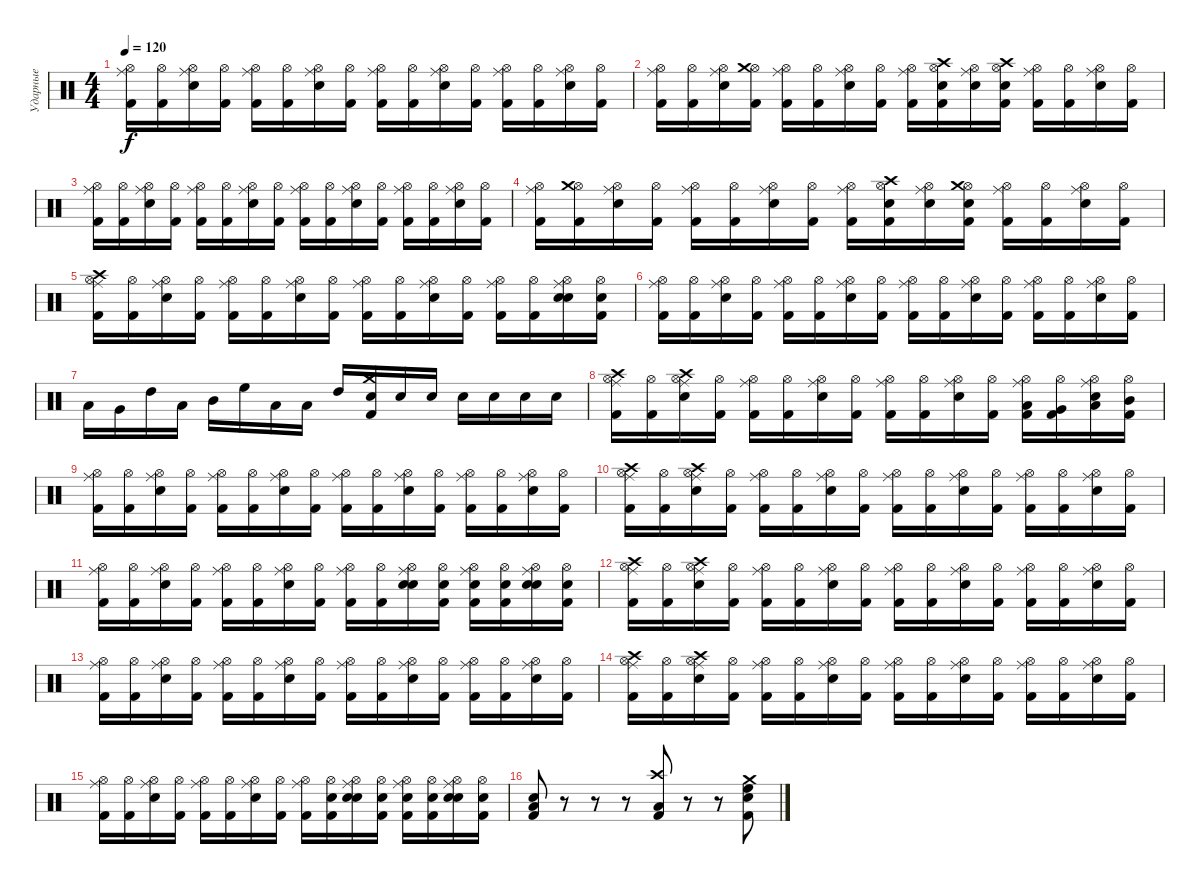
\track ("Ударные" "Ударные") {instrument percussion}
\staff {score}
\articulation defaults
\ts (4 4)
\tempo 120
\clef neutral
\ks c
("Hi-Hat (open)" "Ride (middle)" "Kick (hit) 2").16{dy f} ("Hi-Hat (open)" "Kick (hit) 2").16 ("Hi-Hat (open)" "Ride (middle)" "Snare (hit) 2").16 ("Hi-Hat (open)" "Kick (hit) 2").16 ("Hi-Hat (open)" "Ride (middle)" "Kick (hit) 2").16 ("Hi-Hat (open)" "Kick (hit) 2").16 ("Hi-Hat (open)" "Ride (middle)" "Snare (hit) 2").16 ("Hi-Hat (open)" "Kick (hit) 2").16 ("Hi-Hat (open)" "Ride (middle)" "Kick (hit) 2").16 ("Hi-Hat (open)" "Kick (hit) 2").16 ("Hi-Hat (open)" "Ride (middle)" "Snare (hit) 2").16 ("Hi-Hat (open)" "Kick (hit) 2").16 ("Hi-Hat (open)" "Ride (middle)" "Kick (hit) 2").16 ("Hi-Hat (open)" "Kick (hit) 2").16 ("Hi-Hat (open)" "Ride (middle)" "Snare (hit) 2").16 ("Hi-Hat (open)" "Kick (hit) 2").16 |
("Hi-Hat (open)" "Ride (middle)" "Kick (hit) 2").16 ("Hi-Hat (open)" "Kick (hit) 2").16 ("Hi-Hat (open)" "Ride (middle)" "Snare (hit) 2").16 ("Hi-Hat (open)" "Kick (hit) 2" "Crash medium (hit)").16 ("Hi-Hat (open)" "Ride (middle)" "Kick (hit) 2").16 ("Hi-Hat (open)" "Kick (hit) 2").16 ("Hi-Hat (open)" "Ride (middle)" "Snare (hit) 2").16 ("Hi-Hat (open)" "Kick (hit) 2").16 ("Hi-Hat (open)" "Ride (middle)" "Kick (hit) 2").16 ("Hi-Hat (open)" "Kick (hit) 2" "Crash high (hit)" "Snare (hit) 2").16 ("Hi-Hat (open)" "Ride (middle)" "Snare (hit) 2").16 ("Hi-Hat (open)" "Kick (hit) 2" "Crash high (hit)" "Snare (hit) 2").16 ("Hi-Hat (open)" "Ride (middle)" "Kick (hit) 2").16 ("Hi-Hat (open)" "Kick (hit) 2").16 ("Hi-Hat (open)" "Ride (middle)" "Snare (hit) 2").16 ("Hi-Hat (open)" "Kick (hit) 2").16 |
("Hi-Hat (open)" "Ride (middle)" "Kick (hit) 2").16 ("Hi-Hat (open)" "Kick (hit) 2").16 ("Hi-Hat (open)" "Ride (middle)" "Snare (hit) 2").16 ("Hi-Hat (open)" "Kick (hit) 2").16 ("Hi-Hat (open)" "Ride (middle)" "Kick (hit) 2").16 ("Hi-Hat (open)" "Kick (hit) 2").16 ("Hi-Hat (open)" "Ride (middle)" "Snare (hit) 2").16 ("Hi-Hat (open)" "Kick (hit) 2").16 ("Hi-Hat (open)" "Ride (middle)" "Kick (hit) 2").16 ("Hi-Hat (open)" "Kick (hit) 2").16 ("Hi-Hat (open)" "Ride (middle)" "Snare (hit) 2").16 ("Hi-Hat (open)" "Kick (hit) 2").16 ("Hi-Hat (open)" "Ride (middle)" "Kick (hit) 2").16 ("Hi-Hat (open)" "Kick (hit) 2").16 ("Hi-Hat (open)" "Ride (middle)" "Snare (hit) 2").16 ("Hi-Hat (open)" "Kick (hit) 2").16 |
("Hi-Hat (open)" "Ride (middle)" "Kick (hit) 2").16 ("Hi-Hat (open)" "Kick (hit) 2" "Crash medium (hit)").16 ("Hi-Hat (open)" "Ride (middle)" "Snare (hit) 2").16 ("Hi-Hat (open)" "Kick (hit) 2").16 ("Hi-Hat (open)" "Ride (middle)" "Kick (hit) 2").16 ("Hi-Hat (open)" "Kick (hit) 2").16 ("Hi-Hat (open)" "Ride (middle)" "Snare (hit) 2").16 ("Hi-Hat (open)" "Kick (hit) 2").16 ("Hi-Hat (open)" "Ride (middle)" "Kick (hit) 2").16 ("Hi-Hat (open)" "Kick (hit) 2" "Electric Snare (hit)" "Crash high (hit)").16 ("Hi-Hat (open)" "Ride (middle)" "Snare (hit) 2").16 ("Hi-Hat (open)" "Kick (hit) 2" "Crash medium (hit)" "Electric Snare (hit)").16 ("Hi-Hat (open)" "Ride (middle)" "Kick (hit) 2").16 ("Hi-Hat (open)" "Kick (hit) 2").16 ("Hi-Hat (open)" "Ride (middle)" "Snare (hit) 2").16 ("Hi-Hat (open)" "Kick (hit) 2").16 |
("Hi-Hat (open)" "Ride (middle)" "Kick (hit) 2" "Crash high (hit)").16 ("Hi-Hat (open)" "Kick (hit) 2").16 ("Hi-Hat (open)" "Ride (middle)" "Snare (hit) 2").16 ("Hi-Hat (open)" "Kick (hit) 2").16 ("Hi-Hat (open)" "Ride (middle)" "Kick (hit) 2").16 ("Hi-Hat (open)" "Kick (hit) 2").16 ("Hi-Hat (open)" "Ride (middle)" "Snare (hit) 2").16 ("Hi-Hat (open)" "Kick (hit) 2").16 ("Hi-Hat (open)" "Ride (middle)" "Kick (hit) 2").16 ("Hi-Hat (open)" "Kick (hit) 2").16 ("Hi-Hat (open)" "Ride (middle)" "Snare (hit) 2").16 ("Hi-Hat (open)" "Kick (hit) 2").16 ("Hi-Hat (open)" "Ride (middle)" "Kick (hit) 2").16 ("Hi-Hat (open)" "Kick (hit) 2").16 ("Hi-Hat (open)" "Ride (middle)" "Snare (hit) 2" "Electric Snare (hit)").16 ("Hi-Hat (open)" "Kick (hit) 2" "Electric Snare (hit)").16 |
("Hi-Hat (open)" "Ride (middle)" "Kick (hit) 2").16 ("Hi-Hat (open)" "Kick (hit) 2").16 ("Hi-Hat (open)" "Ride (middle)" "Snare (hit) 2").16 ("Hi-Hat (open)" "Kick (hit) 2").16 ("Hi-Hat (open)" "Ride (middle)" "Kick (hit) 2").16 ("Hi-Hat (open)" "Kick (hit) 2").16 ("Hi-Hat (open)" "Ride (middle)" "Snare (hit) 2").16 ("Hi-Hat (open)" "Kick (hit) 2").16 ("Hi-Hat (open)" "Ride (middle)" "Kick (hit) 2").16 ("Hi-Hat (open)" "Kick (hit) 2").16 ("Hi-Hat (open)" "Ride (middle)" "Snare (hit) 2").16 ("Hi-Hat (open)" "Kick (hit) 2").16 ("Hi-Hat (open)" "Ride (middle)" "Kick (hit) 2").16 ("Hi-Hat (open)" "Kick (hit) 2").16 ("Hi-Hat (open)" "Ride (middle)" "Snare (hit) 2").16 ("Hi-Hat (open)" "Kick (hit) 2").16 |
"Low Floor Tom (hit)".16 "Very Low Tom (hit)".16 "High Tom (hit)".16 "Low Tom (hit)".16 "Mid Tom (hit)".16 "High Floor Tom (hit)".16 "Low Floor Tom (hit)".16 "Low Tom (hit)".16 "High Tom (hit)".16 ("Electric Snare (hit)" "Kick (hit) 2" "Crash medium (hit)").16 "Electric Snare (hit)".16 "Electric Snare (hit)".16 "Electric Snare (hit)".16 "Electric Snare (hit)".16 "Electric Snare (hit)".16 "Electric Snare (hit)".16 |
("Hi-Hat (open)" "Ride (middle)" "Kick (hit) 2" "Crash high (hit)").16 ("Hi-Hat (open)" "Kick (hit) 2").16 ("Hi-Hat (open)" "Ride (middle)" "Snare (hit) 2" "Crash high (hit)").16 ("Hi-Hat (open)" "Kick (hit) 2").16 ("Hi-Hat (open)" "Ride (middle)" "Kick (hit) 2").16 ("Hi-Hat (open)" "Kick (hit) 2").16 ("Hi-Hat (open)" "Ride (middle)" "Snare (hit) 2").16 ("Hi-Hat (open)" "Kick (hit) 2").16 ("Hi-Hat (open)" "Ride (middle)" "Kick (hit) 2").16 ("Hi-Hat (open)" "Kick (hit) 2").16 ("Hi-Hat (open)" "Ride (middle)" "Snare (hit) 2").16 ("Hi-Hat (open)" "Kick (hit) 2").16 ("Hi-Hat (open)" "Ride (middle)" "Kick (hit) 2" "Low Floor Tom (hit)").16 ("Hi-Hat (open)" "Kick (hit) 2" "Very Low Tom (hit)").16 ("Hi-Hat (open)" "Ride (middle)" "Snare (hit) 2" "Low Tom (hit)").16 ("Hi-Hat (open)" "Kick (hit) 2" "Mid Tom (hit)").16 |
("Hi-Hat (open)" "Ride (middle)" "Kick (hit) 2").16 ("Hi-Hat (open)" "Kick (hit) 2").16 ("Hi-Hat (open)" "Ride (middle)" "Snare (hit) 2").16 ("Hi-Hat (open)" "Kick (hit) 2").16 ("Hi-Hat (open)" "Ride (middle)" "Kick (hit) 2").16 ("Hi-Hat (open)" "Kick (hit) 2").16 ("Hi-Hat (open)" "Ride (middle)" "Snare (hit) 2").16 ("Hi-Hat (open)" "Kick (hit) 2").16 ("Hi-Hat (open)" "Ride (middle)" "Kick (hit) 2").16 ("Hi-Hat (open)" "Kick (hit) 2").16 ("Hi-Hat (open)" "Ride (middle)" "Snare (hit) 2").16 ("Hi-Hat (open)" "Kick (hit) 2").16 ("Hi-Hat (open)" "Ride (middle)" "Kick (hit) 2").16 ("Hi-Hat (open)" "Kick (hit) 2").16 ("Hi-Hat (open)" "Ride (middle)" "Snare (hit) 2").16 ("Hi-Hat (open)" "Kick (hit) 2").16 |
("Hi-Hat (open)" "Ride (middle)" "Kick (hit) 2" "Crash high (hit)").16 ("Hi-Hat (open)" "Kick (hit) 2").16 ("Hi-Hat (open)" "Ride (middle)" "Snare (hit) 2" "Crash high (hit)").16 ("Hi-Hat (open)" "Kick (hit) 2").16 ("Hi-Hat (open)" "Ride (middle)" "Kick (hit) 2").16 ("Hi-Hat (open)" "Kick (hit) 2").16 ("Hi-Hat (open)" "Ride (middle)" "Snare (hit) 2").16 ("Hi-Hat (open)" "Kick (hit) 2").16 ("Hi-Hat (open)" "Ride (middle)" "Kick (hit) 2").16 ("Hi-Hat (open)" "Kick (hit) 2").16 ("Hi-Hat (open)" "Ride (middle)" "Snare (hit) 2").16 ("Hi-Hat (open)" "Kick (hit) 2").16 ("Hi-Hat (open)" "Ride (middle)" "Kick (hit) 2").16 ("Hi-Hat (open)" "Kick (hit) 2").16 ("Hi-Hat (open)" "Ride (middle)" "Snare (hit) 2").16 ("Hi-Hat (open)" "Kick (hit) 2").16 |
("Hi-Hat (open)" "Ride (middle)" "Kick (hit) 2").16 ("Hi-Hat (open)" "Kick (hit) 2").16 ("Hi-Hat (open)" "Ride (middle)" "Snare (hit) 2").16 ("Hi-Hat (open)" "Kick (hit) 2").16 ("Hi-Hat (open)" "Ride (middle)" "Kick (hit) 2").16 ("Hi-Hat (open)" "Kick (hit) 2").16 ("Hi-Hat (open)" "Ride (middle)" "Snare (hit) 2").16 ("Hi-Hat (open)" "Kick (hit) 2").16 ("Hi-Hat (open)" "Ride (middle)" "Kick (hit) 2").16 ("Hi-Hat (open)" "Kick (hit) 2").16 ("Hi-Hat (open)" "Ride (middle)" "Snare (hit) 2" "Electric Snare (hit)").16 ("Hi-Hat (open)" "Kick (hit) 2" "Electric Snare (hit)").16 ("Hi-Hat (open)" "Ride (middle)" "Kick (hit) 2" "Electric Snare (hit)").16 ("Hi-Hat (open)" "Kick (hit) 2" "Electric Snare (hit)").16 ("Hi-Hat (open)" "Ride (middle)" "Snare (hit) 2" "Electric Snare (hit)").16 ("Hi-Hat (open)" "Kick (hit) 2" "Electric Snare (hit)").16 |
("Hi-Hat (open)" "Ride (middle)" "Kick (hit) 2" "Crash high (hit)").16 ("Hi-Hat (open)" "Kick (hit) 2").16 ("Hi-Hat (open)" "Ride (middle)" "Snare (hit) 2" "Crash high (hit)").16 ("Hi-Hat (open)" "Kick (hit) 2").16 ("Hi-Hat (open)" "Ride (middle)" "Kick (hit) 2").16 ("Hi-Hat (open)" "Kick (hit) 2").16 ("Hi-Hat (open)" "Ride (middle)" "Snare (hit) 2").16 ("Hi-Hat (open)" "Kick (hit) 2").16 ("Hi-Hat (open)" "Ride (middle)" "Kick (hit) 2").16 ("Hi-Hat (open)" "Kick (hit) 2").16 ("Hi-Hat (open)" "Ride (middle)" "Snare (hit) 2").16 ("Hi-Hat (open)" "Kick (hit) 2").16 ("Hi-Hat (open)" "Ride (middle)" "Kick (hit) 2").16 ("Hi-Hat (open)" "Kick (hit) 2").16 ("Hi-Hat (open)" "Ride (middle)" "Snare (hit) 2").16 ("Hi-Hat (open)" "Kick (hit) 2").16 |
("Hi-Hat (open)" "Ride (middle)" "Kick (hit) 2").16 ("Hi-Hat (open)" "Kick (hit) 2").16 ("Hi-Hat (open)" "Ride (middle)" "Snare (hit) 2").16 ("Hi-Hat (open)" "Kick (hit) 2").16 ("Hi-Hat (open)" "Ride (middle)" "Kick (hit) 2").16 ("Hi-Hat (open)" "Kick (hit) 2").16 ("Hi-Hat (open)" "Ride (middle)" "Snare (hit) 2").16 ("Hi-Hat (open)" "Kick (hit) 2").16 ("Hi-Hat (open)" "Ride (middle)" "Kick (hit) 2").16 ("Hi-Hat (open)" "Kick (hit) 2").16 ("Hi-Hat (open)" "Ride (middle)" "Snare (hit) 2").16 ("Hi-Hat (open)" "Kick (hit) 2").16 ("Hi-Hat (open)" "Ride (middle)" "Kick (hit) 2").16 ("Hi-Hat (open)" "Kick (hit) 2").16 ("Hi-Hat (open)" "Ride (middle)" "Snare (hit) 2").16 ("Hi-Hat (open)" "Kick (hit) 2").16 |
("Hi-Hat (open)" "Ride (middle)" "Kick (hit) 2" "Crash high (hit)").16 ("Hi-Hat (open)" "Kick (hit) 2").16 ("Hi-Hat (open)" "Ride (middle)" "Snare (hit) 2" "Crash high (hit)").16 ("Hi-Hat (open)" "Kick (hit) 2").16 ("Hi-Hat (open)" "Ride (middle)" "Kick (hit) 2").16 ("Hi-Hat (open)" "Kick (hit) 2").16 ("Hi-Hat (open)" "Ride (middle)" "Snare (hit) 2").16 ("Hi-Hat (open)" "Kick (hit) 2").16 ("Hi-Hat (open)" "Ride (middle)" "Kick (hit) 2").16 ("Hi-Hat (open)" "Kick (hit) 2").16 ("Hi-Hat (open)" "Ride (middle)" "Snare (hit) 2").16 ("Hi-Hat (open)" "Kick (hit) 2").16 ("Hi-Hat (open)" "Ride (middle)" "Kick (hit) 2").16 ("Hi-Hat (open)" "Kick (hit) 2").16 ("Hi-Hat (open)" "Ride (middle)" "Snare (hit) 2").16 ("Hi-Hat (open)" "Kick (hit) 2").16 |
("Hi-Hat (open)" "Ride (middle)" "Kick (hit) 2").16 ("Hi-Hat (open)" "Kick (hit) 2").16 ("Hi-Hat (open)" "Ride (middle)" "Snare (hit) 2").16 ("Hi-Hat (open)" "Kick (hit) 2").16 ("Hi-Hat (open)" "Ride (middle)" "Kick (hit) 2").16 ("Hi-Hat (open)" "Kick (hit) 2").16 ("Hi-Hat (open)" "Ride (middle)" "Snare (hit) 2").16 ("Hi-Hat (open)" "Kick (hit) 2").16 ("Hi-Hat (open)" "Ride (middle)" "Kick (hit) 2").16 ("Hi-Hat (open)" "Kick (hit) 2" "Electric Snare (hit)").16 ("Hi-Hat (open)" "Ride (middle)" "Snare (hit) 2" "Electric Snare (hit)").16 ("Hi-Hat (open)" "Kick (hit) 2" "Electric Snare (hit)").16 ("Hi-Hat (open)" "Ride (middle)" "Kick (hit) 2" "Electric Snare (hit)").16 ("Hi-Hat (open)" "Kick (hit) 2" "Electric Snare (hit)").16 ("Hi-Hat (open)" "Ride (middle)" "Snare (hit) 2" "Electric Snare (hit)").16 ("Hi-Hat (open)" "Kick (hit) 2" "Electric Snare (hit)").16 |
("Low Floor Tom (hit)" "Electric Snare (hit)" "Kick (hit) 2").8 r.8 r.8 r.8 ("Kick (hit) 2" "Low Tom (hit)" "Crash high (hit)").8 r.8 r.8 ("Kick (hit) 2" "Snare (hit) 2" "High Floor Tom (hit)" "Crash medium (hit)").8
